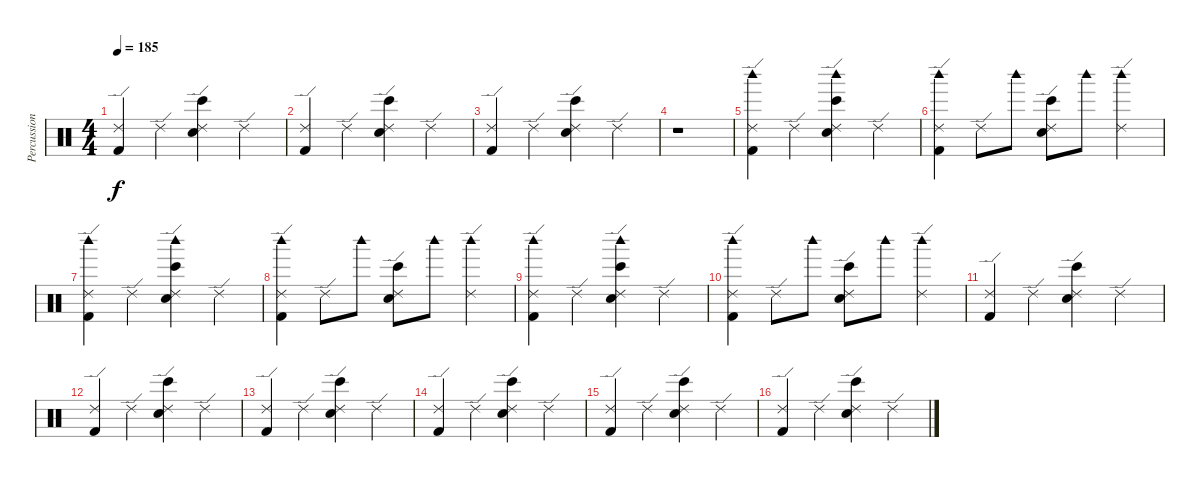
\track ("Percussion" "Percussion") {instrument percussion}
\staff {score}
\articulation defaults
\ts (4 4)
\tempo 185
\clef neutral
\ks c
("Ride (edge) 2" "Kick (hit) 2").4{dy f} "Ride (edge) 2".4 ("Bongo High (hit)" "Electric Snare (hit)" "Ride (edge) 2").4 "Ride (edge) 2".4 |
("Ride (edge) 2" "Kick (hit) 2").4 "Ride (edge) 2".4 ("Bongo High (hit)" "Electric Snare (hit)" "Ride (edge) 2").4 "Ride (edge) 2".4 |
("Ride (edge) 2" "Kick (hit) 2").4 "Ride (edge) 2".4 ("Bongo High (hit)" "Electric Snare (hit)" "Ride (edge) 2").4 "Ride (edge) 2".4 |
r.1 |
("Woodblock high (hit)" "Ride (edge) 2" "Kick (hit) 2").4 "Ride (edge) 2".4 ("Bongo High (hit)" "Electric Snare (hit)" "Woodblock high (hit)" "Ride (edge) 2").4 "Ride (edge) 2".4 |
("Woodblock high (hit)" "Ride (edge) 2" "Kick (hit) 2").4 "Ride (edge) 2".8 "Woodblock high (hit)".8 ("Bongo High (hit)" "Electric Snare (hit)" "Ride (edge) 2").8 "Woodblock high (hit)".8 ("Woodblock high (hit)" "Ride (edge) 2").4 |
("Woodblock high (hit)" "Ride (edge) 2" "Kick (hit) 2").4 "Ride (edge) 2".4 ("Bongo High (hit)" "Electric Snare (hit)" "Woodblock high (hit)" "Ride (edge) 2").4 "Ride (edge) 2".4 |
("Woodblock high (hit)" "Ride (edge) 2" "Kick (hit) 2").4 "Ride (edge) 2".8 "Woodblock high (hit)".8 ("Bongo High (hit)" "Electric Snare (hit)" "Ride (edge) 2").8 "Woodblock high (hit)".8 ("Woodblock high (hit)" "Ride (edge) 2").4 |
("Woodblock high (hit)" "Ride (edge) 2" "Kick (hit) 2").4 "Ride (edge) 2".4 ("Bongo High (hit)" "Electric Snare (hit)" "Woodblock high (hit)" "Ride (edge) 2").4 "Ride (edge) 2".4 |
("Woodblock high (hit)" "Ride (edge) 2" "Kick (hit) 2").4 "Ride (edge) 2".8 "Woodblock high (hit)".8 ("Bongo High (hit)" "Electric Snare (hit)" "Ride (edge) 2").8 "Woodblock high (hit)".8 ("Woodblock high (hit)" "Ride (edge) 2").4 |
("Ride (edge) 2" "Kick (hit) 2").4 "Ride (edge) 2".4 ("Bongo High (hit)" "Electric Snare (hit)" "Ride (edge) 2").4 "Ride (edge) 2".4 |
("Ride (edge) 2" "Kick (hit) 2").4 "Ride (edge) 2".4 ("Bongo High (hit)" "Electric Snare (hit)" "Ride (edge) 2").4 "Ride (edge) 2".4 |
("Ride (edge) 2" "Kick (hit) 2").4 "Ride (edge) 2".4 ("Bongo High (hit)" "Electric Snare (hit)" "Ride (edge) 2").4 "Ride (edge) 2".4 |
("Ride (edge) 2" "Kick (hit) 2").4 "Ride (edge) 2".4 ("Bongo High (hit)" "Electric Snare (hit)" "Ride (edge) 2").4 "Ride (edge) 2".4 |
("Ride (edge) 2" "Kick (hit) 2").4 "Ride (edge) 2".4 ("Bongo High (hit)" "Electric Snare (hit)" "Ride (edge) 2").4 "Ride (edge) 2".4 |
("Ride (edge) 2" "Kick (hit) 2").4 "Ride (edge) 2".4 ("Bongo High (hit)" "Electric Snare (hit)" "Ride (edge) 2").4 "Ride (edge) 2".4
